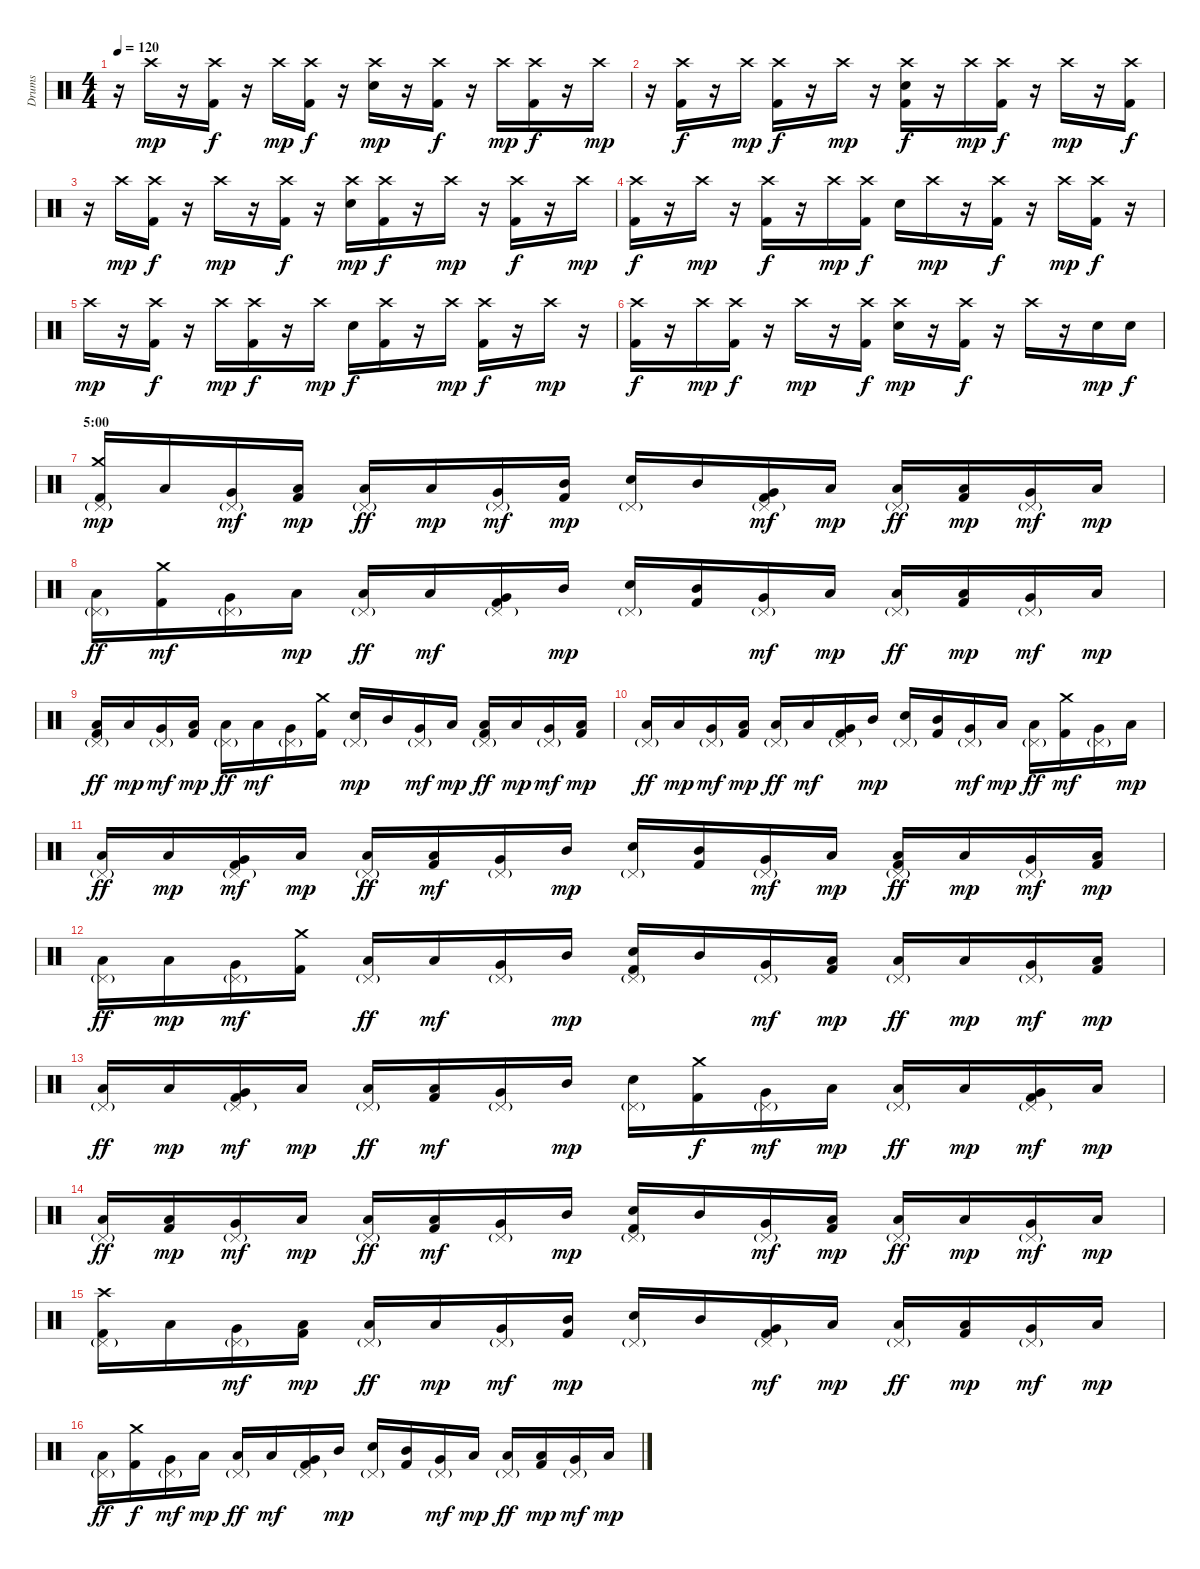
\track ("Drums" "Drums") {instrument percussion}
\staff {score}
\articulation defaults
\ts (4 4)
\tempo 120
\clef neutral
\ks c
r.16{dy f} "Crash high (hit)".16{dy mp} r.16 ("Crash high (hit)" "Kick (hit) 2").16{dy f} r.16 "Crash high (hit)".16{dy mp} ("Crash high (hit)" "Kick (hit) 2").16{dy f} r.16 ("Crash high (hit)" "Electric Snare (hit)").16{dy mp} r.16 ("Crash high (hit)" "Kick (hit) 2").16{dy f} r.16 "Crash high (hit)".16{dy mp} ("Crash high (hit)" "Kick (hit) 2").16{dy f} r.16 "Crash high (hit)".16{dy mp} |
r.16 ("Crash high (hit)" "Kick (hit) 2").16{dy f} r.16 "Crash high (hit)".16{dy mp} ("Crash high (hit)" "Kick (hit) 2").16{dy f} r.16 "Crash high (hit)".16{dy mp} r.16 ("Crash high (hit)" "Electric Snare (hit)" "Kick (hit) 2").16{dy f} r.16 "Crash high (hit)".16{dy mp} ("Crash high (hit)" "Kick (hit) 2").16{dy f} r.16 "Crash high (hit)".16{dy mp} r.16 ("Crash high (hit)" "Kick (hit) 2").16{dy f} |
r.16 "Crash high (hit)".16{dy mp} ("Crash high (hit)" "Kick (hit) 2").16{dy f} r.16 "Crash high (hit)".16{dy mp} r.16 ("Crash high (hit)" "Kick (hit) 2").16{dy f} r.16 ("Crash high (hit)" "Electric Snare (hit)").16{dy mp} ("Crash high (hit)" "Kick (hit) 2").16{dy f} r.16 "Crash high (hit)".16{dy mp} r.16 ("Crash high (hit)" "Kick (hit) 2").16{dy f} r.16 "Crash high (hit)".16{dy mp} |
("Crash high (hit)" "Kick (hit) 2").16{dy f} r.16 "Crash high (hit)".16{dy mp} r.16 ("Crash high (hit)" "Kick (hit) 2").16{dy f} r.16 "Crash high (hit)".16{dy mp} ("Crash high (hit)" "Kick (hit) 2").16{dy f} "Electric Snare (hit)".16 "Crash high (hit)".16{dy mp} r.16 ("Crash high (hit)" "Kick (hit) 2").16{dy f} r.16 "Crash high (hit)".16{dy mp} ("Crash high (hit)" "Kick (hit) 2").16{dy f} r.16 |
"Crash high (hit)".16{dy mp} r.16 ("Crash high (hit)" "Kick (hit) 2").16{dy f} r.16 "Crash high (hit)".16{dy mp} ("Crash high (hit)" "Kick (hit) 2").16{dy f} r.16 "Crash high (hit)".16{dy mp} "Electric Snare (hit)".16{dy f} ("Crash high (hit)" "Kick (hit) 2").16 r.16 "Crash high (hit)".16{dy mp} ("Crash high (hit)" "Kick (hit) 2").16{dy f} r.16 "Crash high (hit)".16{dy mp} r.16 |
("Crash high (hit)" "Kick (hit) 2").16{dy f} r.16 "Crash high (hit)".16{dy mp} ("Crash high (hit)" "Kick (hit) 2").16{dy f} r.16 "Crash high (hit)".16{dy mp} r.16 ("Crash high (hit)" "Kick (hit) 2").16{dy f} ("Crash high (hit)" "Electric Snare (hit)").16{dy mp} r.16 ("Crash high (hit)" "Kick (hit) 2").16{dy f} r.16 "Crash high (hit)".16 r.16 "Electric Snare (hit)".16{dy mp} "Electric Snare (hit)".16{dy f} |
\section ("" "5:00")
("Crash medium (hit)" "Pedal Hi-Hat (hit)"{g} "Kick (hit) 2").16{dy mp} "Low Tom (hit)".16 ("Pedal Hi-Hat (hit)"{g} "Very Low Tom (hit)").16{dy mf} ("Low Tom (hit)" "Kick (hit) 2").16{dy mp} ("Pedal Hi-Hat (hit)"{g} "Low Floor Tom (hit)").16{dy ff} "Low Tom (hit)".16{dy mp} ("Pedal Hi-Hat (hit)"{g} "Very Low Tom (hit)").16{dy mf} ("Mid Tom (hit)" "Kick (hit) 2").16{dy mp} ("Pedal Hi-Hat (hit)"{g} "Electric Snare (hit)").16 "Mid Tom (hit)".16 ("Pedal Hi-Hat (hit)"{g} "Very Low Tom (hit)" "Kick (hit) 2").16{dy mf} "Low Tom (hit)".16{dy mp} ("Pedal Hi-Hat (hit)"{g} "Low Floor Tom (hit)").16{dy ff} ("Low Tom (hit)" "Kick (hit) 2").16{dy mp} ("Pedal Hi-Hat (hit)"{g} "Very Low Tom (hit)").16{dy mf} "Low Tom (hit)".16{dy mp} |
("Pedal Hi-Hat (hit)"{g} "Low Floor Tom (hit)").16{dy ff} ("Crash medium (hit)" "Kick (hit) 2").16{dy mf} ("Pedal Hi-Hat (hit)"{g} "Very Low Tom (hit)").16 "Low Tom (hit)".16{dy mp} ("Pedal Hi-Hat (hit)"{g} "Low Floor Tom (hit)").16{dy ff} "Low Tom (hit)".16{dy mf} ("Pedal Hi-Hat (hit)"{g} "Very Low Tom (hit)" "Kick (hit) 2").16 "Mid Tom (hit)".16{dy mp} ("Pedal Hi-Hat (hit)"{g} "Electric Snare (hit)").16 ("Mid Tom (hit)" "Kick (hit) 2").16 ("Pedal Hi-Hat (hit)"{g} "Very Low Tom (hit)").16{dy mf} "Low Tom (hit)".16{dy mp} ("Pedal Hi-Hat (hit)"{g} "Low Floor Tom (hit)").16{dy ff} ("Low Tom (hit)" "Kick (hit) 2").16{dy mp} ("Pedal Hi-Hat (hit)"{g} "Very Low Tom (hit)").16{dy mf} "Low Tom (hit)".16{dy mp} |
("Pedal Hi-Hat (hit)"{g} "Low Floor Tom (hit)" "Kick (hit) 2").16{dy ff} "Low Tom (hit)".16{dy mp} ("Pedal Hi-Hat (hit)"{g} "Very Low Tom (hit)").16{dy mf} ("Low Tom (hit)" "Kick (hit) 2").16{dy mp} ("Pedal Hi-Hat (hit)"{g} "Low Floor Tom (hit)").16{dy ff} "Low Tom (hit)".16{dy mf} ("Pedal Hi-Hat (hit)"{g} "Very Low Tom (hit)").16 ("Crash medium (hit)" "Kick (hit) 2").16 ("Pedal Hi-Hat (hit)"{g} "Electric Snare (hit)").16{dy mp} "Mid Tom (hit)".16 ("Pedal Hi-Hat (hit)"{g} "Very Low Tom (hit)").16{dy mf} "Low Tom (hit)".16{dy mp} ("Pedal Hi-Hat (hit)"{g} "Low Floor Tom (hit)" "Kick (hit) 2").16{dy ff} "Low Tom (hit)".16{dy mp} ("Pedal Hi-Hat (hit)"{g} "Very Low Tom (hit)").16{dy mf} ("Low Tom (hit)" "Kick (hit) 2").16{dy mp} |
("Pedal Hi-Hat (hit)"{g} "Low Floor Tom (hit)").16{dy ff} "Low Tom (hit)".16{dy mp} ("Pedal Hi-Hat (hit)"{g} "Very Low Tom (hit)").16{dy mf} ("Low Tom (hit)" "Kick (hit) 2").16{dy mp} ("Pedal Hi-Hat (hit)"{g} "Low Floor Tom (hit)").16{dy ff} "Low Tom (hit)".16{dy mf} ("Pedal Hi-Hat (hit)"{g} "Very Low Tom (hit)" "Kick (hit) 2").16 "Mid Tom (hit)".16{dy mp} ("Pedal Hi-Hat (hit)"{g} "Electric Snare (hit)").16 ("Mid Tom (hit)" "Kick (hit) 2").16 ("Pedal Hi-Hat (hit)"{g} "Very Low Tom (hit)").16{dy mf} "Low Tom (hit)".16{dy mp} ("Pedal Hi-Hat (hit)"{g} "Low Floor Tom (hit)").16{dy ff} ("Crash medium (hit)" "Kick (hit) 2").16{dy mf} ("Pedal Hi-Hat (hit)"{g} "Very Low Tom (hit)").16 "Low Tom (hit)".16{dy mp} |
("Pedal Hi-Hat (hit)"{g} "Low Floor Tom (hit)").16{dy ff} "Low Tom (hit)".16{dy mp} ("Pedal Hi-Hat (hit)"{g} "Very Low Tom (hit)" "Kick (hit) 2").16{dy mf} "Low Tom (hit)".16{dy mp} ("Pedal Hi-Hat (hit)"{g} "Low Floor Tom (hit)").16{dy ff} ("Low Tom (hit)" "Kick (hit) 2").16{dy mf} ("Pedal Hi-Hat (hit)"{g} "Very Low Tom (hit)").16 "Mid Tom (hit)".16{dy mp} ("Pedal Hi-Hat (hit)"{g} "Electric Snare (hit)").16 ("Mid Tom (hit)" "Kick (hit) 2").16 ("Pedal Hi-Hat (hit)"{g} "Very Low Tom (hit)").16{dy mf} "Low Tom (hit)".16{dy mp} ("Pedal Hi-Hat (hit)"{g} "Low Floor Tom (hit)" "Kick (hit) 2").16{dy ff} "Low Tom (hit)".16{dy mp} ("Pedal Hi-Hat (hit)"{g} "Very Low Tom (hit)").16{dy mf} ("Low Tom (hit)" "Kick (hit) 2").16{dy mp} |
("Pedal Hi-Hat (hit)"{g} "Low Floor Tom (hit)").16{dy ff} "Low Tom (hit)".16{dy mp} ("Pedal Hi-Hat (hit)"{g} "Very Low Tom (hit)").16{dy mf} ("Crash medium (hit)" "Kick (hit) 2").16 ("Pedal Hi-Hat (hit)"{g} "Low Floor Tom (hit)").16{dy ff} "Low Tom (hit)".16{dy mf} ("Pedal Hi-Hat (hit)"{g} "Very Low Tom (hit)").16 "Mid Tom (hit)".16{dy mp} ("Pedal Hi-Hat (hit)"{g} "Electric Snare (hit)" "Kick (hit) 2").16 "Mid Tom (hit)".16 ("Pedal Hi-Hat (hit)"{g} "Very Low Tom (hit)").16{dy mf} ("Low Tom (hit)" "Kick (hit) 2").16{dy mp} ("Pedal Hi-Hat (hit)"{g} "Low Floor Tom (hit)").16{dy ff} "Low Tom (hit)".16{dy mp} ("Pedal Hi-Hat (hit)"{g} "Very Low Tom (hit)").16{dy mf} ("Low Tom (hit)" "Kick (hit) 2").16{dy mp} |
("Pedal Hi-Hat (hit)"{g} "Low Floor Tom (hit)").16{dy ff} "Low Tom (hit)".16{dy mp} ("Pedal Hi-Hat (hit)"{g} "Very Low Tom (hit)" "Kick (hit) 2").16{dy mf} "Low Tom (hit)".16{dy mp} ("Pedal Hi-Hat (hit)"{g} "Low Floor Tom (hit)").16{dy ff} ("Low Tom (hit)" "Kick (hit) 2").16{dy mf} ("Pedal Hi-Hat (hit)"{g} "Very Low Tom (hit)").16 "Mid Tom (hit)".16{dy mp} ("Pedal Hi-Hat (hit)"{g} "Electric Snare (hit)").16 ("Crash medium (hit)" "Kick (hit) 2").16{dy f} ("Pedal Hi-Hat (hit)"{g} "Very Low Tom (hit)").16{dy mf} "Low Tom (hit)".16{dy mp} ("Pedal Hi-Hat (hit)"{g} "Low Floor Tom (hit)").16{dy ff} "Low Tom (hit)".16{dy mp} ("Pedal Hi-Hat (hit)"{g} "Very Low Tom (hit)" "Kick (hit) 2").16{dy mf} "Low Tom (hit)".16{dy mp} |
("Pedal Hi-Hat (hit)"{g} "Low Floor Tom (hit)").16{dy ff} ("Low Tom (hit)" "Kick (hit) 2").16{dy mp} ("Pedal Hi-Hat (hit)"{g} "Very Low Tom (hit)").16{dy mf} "Low Tom (hit)".16{dy mp} ("Pedal Hi-Hat (hit)"{g} "Low Floor Tom (hit)").16{dy ff} ("Low Tom (hit)" "Kick (hit) 2").16{dy mf} ("Pedal Hi-Hat (hit)"{g} "Very Low Tom (hit)").16 "Mid Tom (hit)".16{dy mp} ("Pedal Hi-Hat (hit)"{g} "Electric Snare (hit)" "Kick (hit) 2").16 "Mid Tom (hit)".16 ("Pedal Hi-Hat (hit)"{g} "Very Low Tom (hit)").16{dy mf} ("Low Tom (hit)" "Kick (hit) 2").16{dy mp} ("Pedal Hi-Hat (hit)"{g} "Low Floor Tom (hit)").16{dy ff} "Low Tom (hit)".16{dy mp} ("Pedal Hi-Hat (hit)"{g} "Very Low Tom (hit)").16{dy mf} "Low Tom (hit)".16{dy mp} |
("Crash high (hit)" "Pedal Hi-Hat (hit)"{g} "Kick (hit) 2").16 "Low Tom (hit)".16 ("Pedal Hi-Hat (hit)"{g} "Very Low Tom (hit)").16{dy mf} ("Low Tom (hit)" "Kick (hit) 2").16{dy mp} ("Pedal Hi-Hat (hit)"{g} "Low Floor Tom (hit)").16{dy ff} "Low Tom (hit)".16{dy mp} ("Pedal Hi-Hat (hit)"{g} "Very Low Tom (hit)").16{dy mf} ("Mid Tom (hit)" "Kick (hit) 2").16{dy mp} ("Pedal Hi-Hat (hit)"{g} "Electric Snare (hit)").16 "Mid Tom (hit)".16 ("Pedal Hi-Hat (hit)"{g} "Very Low Tom (hit)" "Kick (hit) 2").16{dy mf} "Low Tom (hit)".16{dy mp} ("Pedal Hi-Hat (hit)"{g} "Low Floor Tom (hit)").16{dy ff} ("Low Tom (hit)" "Kick (hit) 2").16{dy mp} ("Pedal Hi-Hat (hit)"{g} "Very Low Tom (hit)").16{dy mf} "Low Tom (hit)".16{dy mp} |
("Pedal Hi-Hat (hit)"{g} "Low Floor Tom (hit)").16{dy ff} ("Crash medium (hit)" "Kick (hit) 2").16{dy f} ("Pedal Hi-Hat (hit)"{g} "Very Low Tom (hit)").16{dy mf} "Low Tom (hit)".16{dy mp} ("Pedal Hi-Hat (hit)"{g} "Low Floor Tom (hit)").16{dy ff} "Low Tom (hit)".16{dy mf} ("Pedal Hi-Hat (hit)"{g} "Very Low Tom (hit)" "Kick (hit) 2").16 "Mid Tom (hit)".16{dy mp} ("Pedal Hi-Hat (hit)"{g} "Electric Snare (hit)").16 ("Mid Tom (hit)" "Kick (hit) 2").16 ("Pedal Hi-Hat (hit)"{g} "Very Low Tom (hit)").16{dy mf} "Low Tom (hit)".16{dy mp} ("Pedal Hi-Hat (hit)"{g} "Low Floor Tom (hit)").16{dy ff} ("Low Tom (hit)" "Kick (hit) 2").16{dy mp} ("Pedal Hi-Hat (hit)"{g} "Very Low Tom (hit)").16{dy mf} "Low Tom (hit)".16{dy mp}
